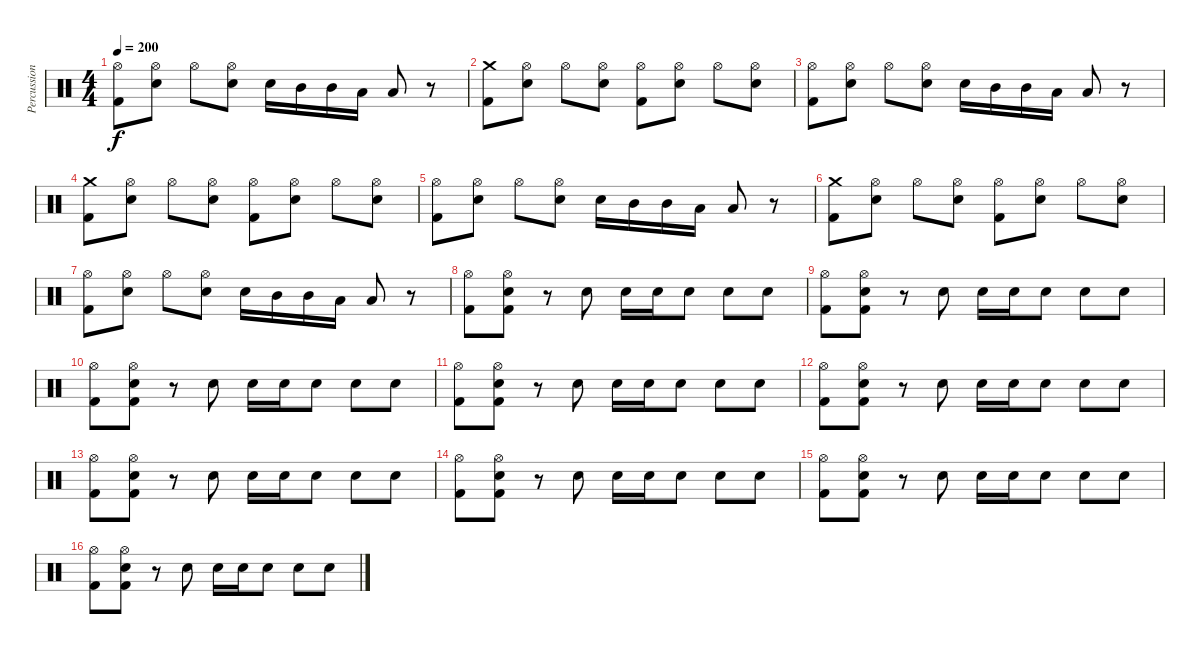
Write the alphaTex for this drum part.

\track ("Percussion" "Percussion") {instrument percussion}
\staff {score}
\articulation defaults
\ts (4 4)
\tempo 200
\clef neutral
\ks c
("Hi-Hat (open)" "Kick (hit) 2").8{dy f} ("Hi-Hat (open)" "Electric Snare (hit)").8 "Hi-Hat (open)".8 ("Hi-Hat (open)" "Electric Snare (hit)").8 "Electric Snare (hit)".16 "Mid Tom (hit)".16 "Mid Tom (hit)".16 "Low Tom (hit)".16 "Low Tom (hit)".8 r.8 |
("Crash medium (hit)" "Kick (hit) 2").8 ("Hi-Hat (open)" "Electric Snare (hit)").8 "Hi-Hat (open)".8 ("Hi-Hat (open)" "Electric Snare (hit)").8 ("Hi-Hat (open)" "Kick (hit) 2").8 ("Hi-Hat (open)" "Electric Snare (hit)").8 "Hi-Hat (open)".8 ("Hi-Hat (open)" "Electric Snare (hit)").8 |
("Hi-Hat (open)" "Kick (hit) 2").8 ("Hi-Hat (open)" "Electric Snare (hit)").8 "Hi-Hat (open)".8 ("Hi-Hat (open)" "Electric Snare (hit)").8 "Electric Snare (hit)".16 "Mid Tom (hit)".16 "Mid Tom (hit)".16 "Low Tom (hit)".16 "Low Tom (hit)".8 r.8 |
("Crash medium (hit)" "Kick (hit) 2").8 ("Hi-Hat (open)" "Electric Snare (hit)").8 "Hi-Hat (open)".8 ("Hi-Hat (open)" "Electric Snare (hit)").8 ("Hi-Hat (open)" "Kick (hit) 2").8 ("Hi-Hat (open)" "Electric Snare (hit)").8 "Hi-Hat (open)".8 ("Hi-Hat (open)" "Electric Snare (hit)").8 |
("Hi-Hat (open)" "Kick (hit) 2").8 ("Hi-Hat (open)" "Electric Snare (hit)").8 "Hi-Hat (open)".8 ("Hi-Hat (open)" "Electric Snare (hit)").8 "Electric Snare (hit)".16 "Mid Tom (hit)".16 "Mid Tom (hit)".16 "Low Tom (hit)".16 "Low Tom (hit)".8 r.8 |
("Crash medium (hit)" "Kick (hit) 2").8 ("Hi-Hat (open)" "Electric Snare (hit)").8 "Hi-Hat (open)".8 ("Hi-Hat (open)" "Electric Snare (hit)").8 ("Hi-Hat (open)" "Kick (hit) 2").8 ("Hi-Hat (open)" "Electric Snare (hit)").8 "Hi-Hat (open)".8 ("Hi-Hat (open)" "Electric Snare (hit)").8 |
("Hi-Hat (open)" "Kick (hit) 2").8 ("Hi-Hat (open)" "Electric Snare (hit)").8 "Hi-Hat (open)".8 ("Hi-Hat (open)" "Electric Snare (hit)").8 "Electric Snare (hit)".16 "Mid Tom (hit)".16 "Mid Tom (hit)".16 "Low Tom (hit)".16 "Low Tom (hit)".8 r.8 |
("Hi-Hat (open)" "Kick (hit) 2").8 ("Hi-Hat (open)" "Electric Snare (hit)" "Kick (hit) 2").8 r.8 "Electric Snare (hit)".8 "Electric Snare (hit)".16 "Electric Snare (hit)".16 "Electric Snare (hit)".8 "Electric Snare (hit)".8 "Electric Snare (hit)".8 |
("Hi-Hat (open)" "Kick (hit) 2").8 ("Hi-Hat (open)" "Electric Snare (hit)" "Kick (hit) 2").8 r.8 "Electric Snare (hit)".8 "Electric Snare (hit)".16 "Electric Snare (hit)".16 "Electric Snare (hit)".8 "Electric Snare (hit)".8 "Electric Snare (hit)".8 |
("Hi-Hat (open)" "Kick (hit) 2").8 ("Hi-Hat (open)" "Electric Snare (hit)" "Kick (hit) 2").8 r.8 "Electric Snare (hit)".8 "Electric Snare (hit)".16 "Electric Snare (hit)".16 "Electric Snare (hit)".8 "Electric Snare (hit)".8 "Electric Snare (hit)".8 |
("Hi-Hat (open)" "Kick (hit) 2").8 ("Hi-Hat (open)" "Electric Snare (hit)" "Kick (hit) 2").8 r.8 "Electric Snare (hit)".8 "Electric Snare (hit)".16 "Electric Snare (hit)".16 "Electric Snare (hit)".8 "Electric Snare (hit)".8 "Electric Snare (hit)".8 |
("Hi-Hat (open)" "Kick (hit) 2").8 ("Hi-Hat (open)" "Electric Snare (hit)" "Kick (hit) 2").8 r.8 "Electric Snare (hit)".8 "Electric Snare (hit)".16 "Electric Snare (hit)".16 "Electric Snare (hit)".8 "Electric Snare (hit)".8 "Electric Snare (hit)".8 |
("Hi-Hat (open)" "Kick (hit) 2").8 ("Hi-Hat (open)" "Electric Snare (hit)" "Kick (hit) 2").8 r.8 "Electric Snare (hit)".8 "Electric Snare (hit)".16 "Electric Snare (hit)".16 "Electric Snare (hit)".8 "Electric Snare (hit)".8 "Electric Snare (hit)".8 |
("Hi-Hat (open)" "Kick (hit) 2").8 ("Hi-Hat (open)" "Electric Snare (hit)" "Kick (hit) 2").8 r.8 "Electric Snare (hit)".8 "Electric Snare (hit)".16 "Electric Snare (hit)".16 "Electric Snare (hit)".8 "Electric Snare (hit)".8 "Electric Snare (hit)".8 |
("Hi-Hat (open)" "Kick (hit) 2").8 ("Hi-Hat (open)" "Electric Snare (hit)" "Kick (hit) 2").8 r.8 "Electric Snare (hit)".8 "Electric Snare (hit)".16 "Electric Snare (hit)".16 "Electric Snare (hit)".8 "Electric Snare (hit)".8 "Electric Snare (hit)".8 |
("Hi-Hat (open)" "Kick (hit) 2").8 ("Hi-Hat (open)" "Electric Snare (hit)" "Kick (hit) 2").8 r.8 "Electric Snare (hit)".8 "Electric Snare (hit)".16 "Electric Snare (hit)".16 "Electric Snare (hit)".8 "Electric Snare (hit)".8 "Electric Snare (hit)".8
